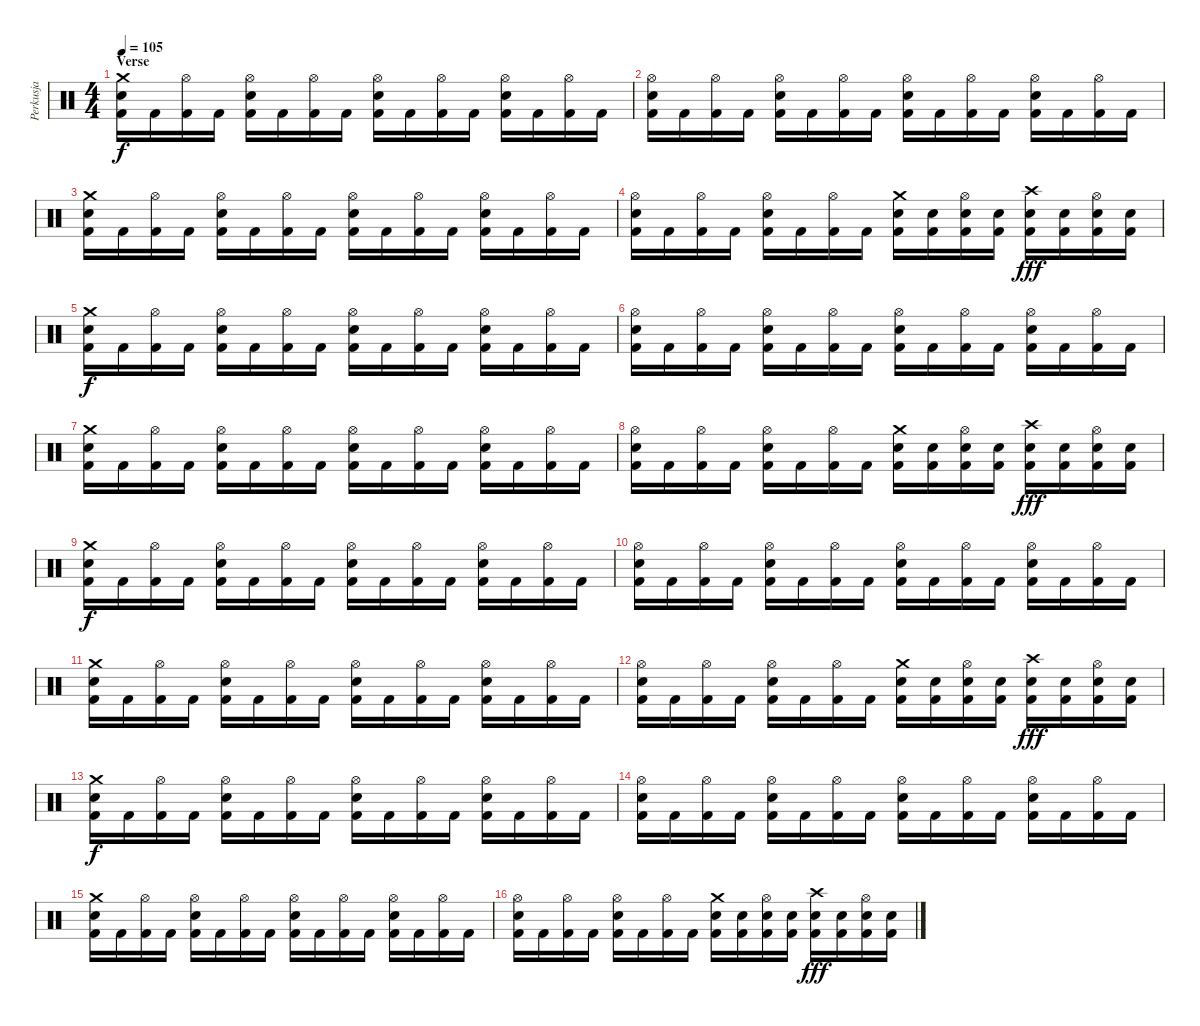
\track ("Perkusja" "Perkusja") {instrument percussion}
\staff {score}
\articulation defaults
\ts (4 4)
\section ("" "Verse")
\tempo 105
\clef neutral
\ks c
("Kick (hit) 2" "Snare (hit) 2" "Crash medium (hit)").16{dy f} "Kick (hit) 2".16 ("Kick (hit) 2" "Hi-Hat (open)").16 "Kick (hit) 2".16 ("Kick (hit) 2" "Snare (hit) 2" "Hi-Hat (open)").16 "Kick (hit) 2".16 ("Kick (hit) 2" "Hi-Hat (open)").16 "Kick (hit) 2".16 ("Kick (hit) 2" "Snare (hit) 2" "Hi-Hat (open)").16 "Kick (hit) 2".16 ("Kick (hit) 2" "Hi-Hat (open)").16 "Kick (hit) 2".16 ("Kick (hit) 2" "Snare (hit) 2" "Hi-Hat (open)").16 "Kick (hit) 2".16 ("Kick (hit) 2" "Hi-Hat (open)").16 "Kick (hit) 2".16 |
("Kick (hit) 2" "Snare (hit) 2" "Hi-Hat (open)").16 "Kick (hit) 2".16 ("Kick (hit) 2" "Hi-Hat (open)").16 "Kick (hit) 2".16 ("Kick (hit) 2" "Snare (hit) 2" "Hi-Hat (open)").16 "Kick (hit) 2".16 ("Kick (hit) 2" "Hi-Hat (open)").16 "Kick (hit) 2".16 ("Kick (hit) 2" "Snare (hit) 2" "Hi-Hat (open)").16 "Kick (hit) 2".16 ("Kick (hit) 2" "Hi-Hat (open)").16 "Kick (hit) 2".16 ("Kick (hit) 2" "Snare (hit) 2" "Hi-Hat (open)").16 "Kick (hit) 2".16 ("Kick (hit) 2" "Hi-Hat (open)").16 "Kick (hit) 2".16 |
("Kick (hit) 2" "Snare (hit) 2" "Crash medium (hit)").16 "Kick (hit) 2".16 ("Kick (hit) 2" "Hi-Hat (open)").16 "Kick (hit) 2".16 ("Kick (hit) 2" "Snare (hit) 2" "Hi-Hat (open)").16 "Kick (hit) 2".16 ("Kick (hit) 2" "Hi-Hat (open)").16 "Kick (hit) 2".16 ("Kick (hit) 2" "Snare (hit) 2" "Hi-Hat (open)").16 "Kick (hit) 2".16 ("Kick (hit) 2" "Hi-Hat (open)").16 "Kick (hit) 2".16 ("Kick (hit) 2" "Snare (hit) 2" "Hi-Hat (open)").16 "Kick (hit) 2".16 ("Kick (hit) 2" "Hi-Hat (open)").16 "Kick (hit) 2".16 |
("Kick (hit) 2" "Snare (hit) 2" "Hi-Hat (open)").16 "Kick (hit) 2".16 ("Kick (hit) 2" "Hi-Hat (open)").16 "Kick (hit) 2".16 ("Kick (hit) 2" "Snare (hit) 2" "Hi-Hat (open)").16 "Kick (hit) 2".16 ("Kick (hit) 2" "Hi-Hat (open)").16 "Kick (hit) 2".16 ("Kick (hit) 2" "Snare (hit) 2" "Crash medium (hit)").16 ("Kick (hit) 2" "Snare (hit) 2").16 ("Kick (hit) 2" "Snare (hit) 2" "Hi-Hat (open)").16 ("Kick (hit) 2" "Snare (hit) 2").16 ("Kick (hit) 2" "Electric Snare (hit)" "Crash high (hit)").16{dy fff} ("Kick (hit) 2" "Electric Snare (hit)").16 ("Kick (hit) 2" "Electric Snare (hit)" "Hi-Hat (open)").16 ("Kick (hit) 2" "Electric Snare (hit)").16 |
("Kick (hit) 2" "Snare (hit) 2" "Crash medium (hit)").16{dy f} "Kick (hit) 2".16 ("Kick (hit) 2" "Hi-Hat (open)").16 "Kick (hit) 2".16 ("Kick (hit) 2" "Snare (hit) 2" "Hi-Hat (open)").16 "Kick (hit) 2".16 ("Kick (hit) 2" "Hi-Hat (open)").16 "Kick (hit) 2".16 ("Kick (hit) 2" "Snare (hit) 2" "Hi-Hat (open)").16 "Kick (hit) 2".16 ("Kick (hit) 2" "Hi-Hat (open)").16 "Kick (hit) 2".16 ("Kick (hit) 2" "Snare (hit) 2" "Hi-Hat (open)").16 "Kick (hit) 2".16 ("Kick (hit) 2" "Hi-Hat (open)").16 "Kick (hit) 2".16 |
("Kick (hit) 2" "Snare (hit) 2" "Hi-Hat (open)").16 "Kick (hit) 2".16 ("Kick (hit) 2" "Hi-Hat (open)").16 "Kick (hit) 2".16 ("Kick (hit) 2" "Snare (hit) 2" "Hi-Hat (open)").16 "Kick (hit) 2".16 ("Kick (hit) 2" "Hi-Hat (open)").16 "Kick (hit) 2".16 ("Kick (hit) 2" "Snare (hit) 2" "Hi-Hat (open)").16 "Kick (hit) 2".16 ("Kick (hit) 2" "Hi-Hat (open)").16 "Kick (hit) 2".16 ("Kick (hit) 2" "Snare (hit) 2" "Hi-Hat (open)").16 "Kick (hit) 2".16 ("Kick (hit) 2" "Hi-Hat (open)").16 "Kick (hit) 2".16 |
("Kick (hit) 2" "Snare (hit) 2" "Crash medium (hit)").16 "Kick (hit) 2".16 ("Kick (hit) 2" "Hi-Hat (open)").16 "Kick (hit) 2".16 ("Kick (hit) 2" "Snare (hit) 2" "Hi-Hat (open)").16 "Kick (hit) 2".16 ("Kick (hit) 2" "Hi-Hat (open)").16 "Kick (hit) 2".16 ("Kick (hit) 2" "Snare (hit) 2" "Hi-Hat (open)").16 "Kick (hit) 2".16 ("Kick (hit) 2" "Hi-Hat (open)").16 "Kick (hit) 2".16 ("Kick (hit) 2" "Snare (hit) 2" "Hi-Hat (open)").16 "Kick (hit) 2".16 ("Kick (hit) 2" "Hi-Hat (open)").16 "Kick (hit) 2".16 |
("Kick (hit) 2" "Snare (hit) 2" "Hi-Hat (open)").16 "Kick (hit) 2".16 ("Kick (hit) 2" "Hi-Hat (open)").16 "Kick (hit) 2".16 ("Kick (hit) 2" "Snare (hit) 2" "Hi-Hat (open)").16 "Kick (hit) 2".16 ("Kick (hit) 2" "Hi-Hat (open)").16 "Kick (hit) 2".16 ("Kick (hit) 2" "Snare (hit) 2" "Crash medium (hit)").16 ("Kick (hit) 2" "Snare (hit) 2").16 ("Kick (hit) 2" "Snare (hit) 2" "Hi-Hat (open)").16 ("Kick (hit) 2" "Snare (hit) 2").16 ("Kick (hit) 2" "Electric Snare (hit)" "Crash high (hit)").16{dy fff} ("Kick (hit) 2" "Electric Snare (hit)").16 ("Kick (hit) 2" "Electric Snare (hit)" "Hi-Hat (open)").16 ("Kick (hit) 2" "Electric Snare (hit)").16 |
("Kick (hit) 2" "Snare (hit) 2" "Crash medium (hit)").16{dy f} "Kick (hit) 2".16 ("Kick (hit) 2" "Hi-Hat (open)").16 "Kick (hit) 2".16 ("Kick (hit) 2" "Snare (hit) 2" "Hi-Hat (open)").16 "Kick (hit) 2".16 ("Kick (hit) 2" "Hi-Hat (open)").16 "Kick (hit) 2".16 ("Kick (hit) 2" "Snare (hit) 2" "Hi-Hat (open)").16 "Kick (hit) 2".16 ("Kick (hit) 2" "Hi-Hat (open)").16 "Kick (hit) 2".16 ("Kick (hit) 2" "Snare (hit) 2" "Hi-Hat (open)").16 "Kick (hit) 2".16 ("Kick (hit) 2" "Hi-Hat (open)").16 "Kick (hit) 2".16 |
("Kick (hit) 2" "Snare (hit) 2" "Hi-Hat (open)").16 "Kick (hit) 2".16 ("Kick (hit) 2" "Hi-Hat (open)").16 "Kick (hit) 2".16 ("Kick (hit) 2" "Snare (hit) 2" "Hi-Hat (open)").16 "Kick (hit) 2".16 ("Kick (hit) 2" "Hi-Hat (open)").16 "Kick (hit) 2".16 ("Kick (hit) 2" "Snare (hit) 2" "Hi-Hat (open)").16 "Kick (hit) 2".16 ("Kick (hit) 2" "Hi-Hat (open)").16 "Kick (hit) 2".16 ("Kick (hit) 2" "Snare (hit) 2" "Hi-Hat (open)").16 "Kick (hit) 2".16 ("Kick (hit) 2" "Hi-Hat (open)").16 "Kick (hit) 2".16 |
("Kick (hit) 2" "Snare (hit) 2" "Crash medium (hit)").16 "Kick (hit) 2".16 ("Kick (hit) 2" "Hi-Hat (open)").16 "Kick (hit) 2".16 ("Kick (hit) 2" "Snare (hit) 2" "Hi-Hat (open)").16 "Kick (hit) 2".16 ("Kick (hit) 2" "Hi-Hat (open)").16 "Kick (hit) 2".16 ("Kick (hit) 2" "Snare (hit) 2" "Hi-Hat (open)").16 "Kick (hit) 2".16 ("Kick (hit) 2" "Hi-Hat (open)").16 "Kick (hit) 2".16 ("Kick (hit) 2" "Snare (hit) 2" "Hi-Hat (open)").16 "Kick (hit) 2".16 ("Kick (hit) 2" "Hi-Hat (open)").16 "Kick (hit) 2".16 |
("Kick (hit) 2" "Snare (hit) 2" "Hi-Hat (open)").16 "Kick (hit) 2".16 ("Kick (hit) 2" "Hi-Hat (open)").16 "Kick (hit) 2".16 ("Kick (hit) 2" "Snare (hit) 2" "Hi-Hat (open)").16 "Kick (hit) 2".16 ("Kick (hit) 2" "Hi-Hat (open)").16 "Kick (hit) 2".16 ("Kick (hit) 2" "Snare (hit) 2" "Crash medium (hit)").16 ("Kick (hit) 2" "Snare (hit) 2").16 ("Kick (hit) 2" "Snare (hit) 2" "Hi-Hat (open)").16 ("Kick (hit) 2" "Snare (hit) 2").16 ("Kick (hit) 2" "Electric Snare (hit)" "Crash high (hit)").16{dy fff} ("Kick (hit) 2" "Electric Snare (hit)").16 ("Kick (hit) 2" "Electric Snare (hit)" "Hi-Hat (open)").16 ("Kick (hit) 2" "Electric Snare (hit)").16 |
("Kick (hit) 2" "Snare (hit) 2" "Crash medium (hit)").16{dy f} "Kick (hit) 2".16 ("Kick (hit) 2" "Hi-Hat (open)").16 "Kick (hit) 2".16 ("Kick (hit) 2" "Snare (hit) 2" "Hi-Hat (open)").16 "Kick (hit) 2".16 ("Kick (hit) 2" "Hi-Hat (open)").16 "Kick (hit) 2".16 ("Kick (hit) 2" "Snare (hit) 2" "Hi-Hat (open)").16 "Kick (hit) 2".16 ("Kick (hit) 2" "Hi-Hat (open)").16 "Kick (hit) 2".16 ("Kick (hit) 2" "Snare (hit) 2" "Hi-Hat (open)").16 "Kick (hit) 2".16 ("Kick (hit) 2" "Hi-Hat (open)").16 "Kick (hit) 2".16 |
("Kick (hit) 2" "Snare (hit) 2" "Hi-Hat (open)").16 "Kick (hit) 2".16 ("Kick (hit) 2" "Hi-Hat (open)").16 "Kick (hit) 2".16 ("Kick (hit) 2" "Snare (hit) 2" "Hi-Hat (open)").16 "Kick (hit) 2".16 ("Kick (hit) 2" "Hi-Hat (open)").16 "Kick (hit) 2".16 ("Kick (hit) 2" "Snare (hit) 2" "Hi-Hat (open)").16 "Kick (hit) 2".16 ("Kick (hit) 2" "Hi-Hat (open)").16 "Kick (hit) 2".16 ("Kick (hit) 2" "Snare (hit) 2" "Hi-Hat (open)").16 "Kick (hit) 2".16 ("Kick (hit) 2" "Hi-Hat (open)").16 "Kick (hit) 2".16 |
("Kick (hit) 2" "Snare (hit) 2" "Crash medium (hit)").16 "Kick (hit) 2".16 ("Kick (hit) 2" "Hi-Hat (open)").16 "Kick (hit) 2".16 ("Kick (hit) 2" "Snare (hit) 2" "Hi-Hat (open)").16 "Kick (hit) 2".16 ("Kick (hit) 2" "Hi-Hat (open)").16 "Kick (hit) 2".16 ("Kick (hit) 2" "Snare (hit) 2" "Hi-Hat (open)").16 "Kick (hit) 2".16 ("Kick (hit) 2" "Hi-Hat (open)").16 "Kick (hit) 2".16 ("Kick (hit) 2" "Snare (hit) 2" "Hi-Hat (open)").16 "Kick (hit) 2".16 ("Kick (hit) 2" "Hi-Hat (open)").16 "Kick (hit) 2".16 |
("Kick (hit) 2" "Snare (hit) 2" "Hi-Hat (open)").16 "Kick (hit) 2".16 ("Kick (hit) 2" "Hi-Hat (open)").16 "Kick (hit) 2".16 ("Kick (hit) 2" "Snare (hit) 2" "Hi-Hat (open)").16 "Kick (hit) 2".16 ("Kick (hit) 2" "Hi-Hat (open)").16 "Kick (hit) 2".16 ("Kick (hit) 2" "Snare (hit) 2" "Crash medium (hit)").16 ("Kick (hit) 2" "Snare (hit) 2").16 ("Kick (hit) 2" "Snare (hit) 2" "Hi-Hat (open)").16 ("Kick (hit) 2" "Snare (hit) 2").16 ("Kick (hit) 2" "Electric Snare (hit)" "Crash high (hit)").16{dy fff} ("Kick (hit) 2" "Electric Snare (hit)").16 ("Kick (hit) 2" "Electric Snare (hit)" "Hi-Hat (open)").16 ("Kick (hit) 2" "Electric Snare (hit)").16
